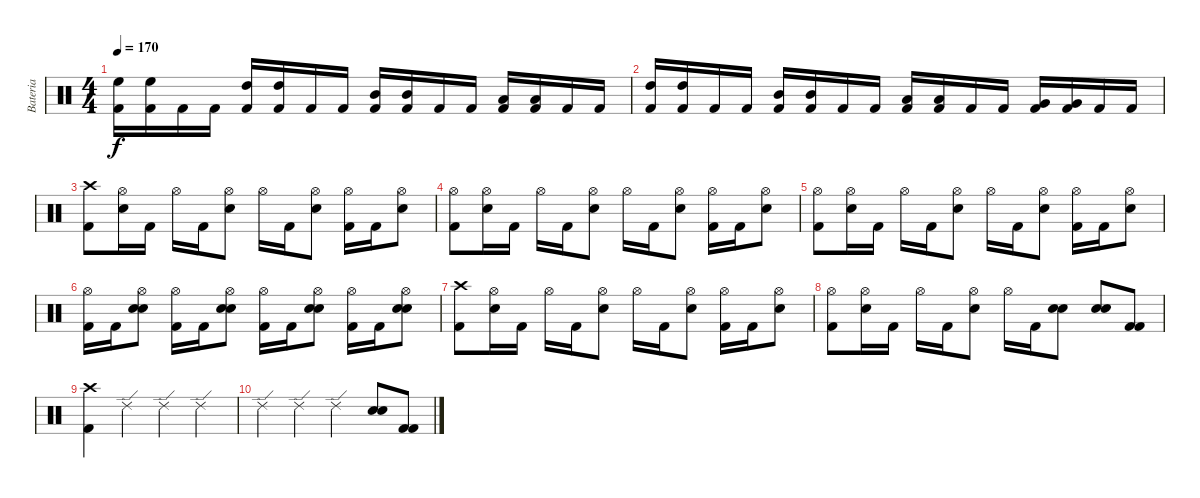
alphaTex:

\track ("Bateria" "Bateria") {instrument percussion}
\staff {score}
\articulation defaults
\ts (4 4)
\tempo 170
\clef neutral
\ks c
("High Floor Tom (hit)" "Kick (hit) 2").16{dy f} ("High Floor Tom (hit)" "Kick (hit) 2").16 "Kick (hit) 2".16 "Kick (hit) 2".16 ("High Tom (hit)" "Kick (hit) 2").16 ("High Tom (hit)" "Kick (hit) 2").16 "Kick (hit) 2".16 "Kick (hit) 2".16 ("Mid Tom (hit)" "Kick (hit) 2").16 ("Mid Tom (hit)" "Kick (hit) 2").16 "Kick (hit) 2".16 "Kick (hit) 2".16 ("Low Tom (hit)" "Kick (hit) 2").16 ("Low Tom (hit)" "Kick (hit) 2").16 "Kick (hit) 2".16 "Kick (hit) 2".16 |
("High Tom (hit)" "Kick (hit) 2").16 ("High Tom (hit)" "Kick (hit) 2").16 "Kick (hit) 2".16 "Kick (hit) 2".16 ("Mid Tom (hit)" "Kick (hit) 2").16 ("Mid Tom (hit)" "Kick (hit) 2").16 "Kick (hit) 2".16 "Kick (hit) 2".16 ("Low Tom (hit)" "Kick (hit) 2").16 ("Low Tom (hit)" "Kick (hit) 2").16 "Kick (hit) 2".16 "Kick (hit) 2".16 ("Very Low Tom (hit)" "Kick (hit) 2").16 ("Very Low Tom (hit)" "Kick (hit) 2").16 "Kick (hit) 2".16 "Kick (hit) 2".16 |
("Crash high (hit)" "Kick (hit) 2").8 ("Hi-Hat (open)" "Snare (hit) 2").16 "Kick (hit) 2".16 "Hi-Hat (open)".16 "Kick (hit) 2".16 ("Hi-Hat (open)" "Snare (hit) 2").8 "Hi-Hat (open)".16 "Kick (hit) 2".16 ("Hi-Hat (open)" "Snare (hit) 2").8 ("Hi-Hat (open)" "Kick (hit) 2").16 "Kick (hit) 2".16 ("Hi-Hat (open)" "Snare (hit) 2").8 |
("Hi-Hat (open)" "Kick (hit) 2").8 ("Hi-Hat (open)" "Snare (hit) 2").16 "Kick (hit) 2".16 "Hi-Hat (open)".16 "Kick (hit) 2".16 ("Hi-Hat (open)" "Snare (hit) 2").8 "Hi-Hat (open)".16 "Kick (hit) 2".16 ("Hi-Hat (open)" "Snare (hit) 2").8 ("Hi-Hat (open)" "Kick (hit) 2").16 "Kick (hit) 2".16 ("Hi-Hat (open)" "Snare (hit) 2").8 |
("Hi-Hat (open)" "Kick (hit) 2").8 ("Hi-Hat (open)" "Snare (hit) 2").16 "Kick (hit) 2".16 "Hi-Hat (open)".16 "Kick (hit) 2".16 ("Hi-Hat (open)" "Snare (hit) 2").8 "Hi-Hat (open)".16 "Kick (hit) 2".16 ("Hi-Hat (open)" "Snare (hit) 2").8 ("Hi-Hat (open)" "Kick (hit) 2").16 "Kick (hit) 2".16 ("Hi-Hat (open)" "Snare (hit) 2").8 |
("Hi-Hat (open)" "Kick (hit) 2").16 "Kick (hit) 2".16 ("Hi-Hat (open)" "Electric Snare (hit)" "Snare (hit) 2").8 ("Hi-Hat (open)" "Kick (hit) 2").16 "Kick (hit) 2".16 ("Hi-Hat (open)" "Electric Snare (hit)" "Snare (hit) 2").8 ("Hi-Hat (open)" "Kick (hit) 2").16 "Kick (hit) 2".16 ("Hi-Hat (open)" "Electric Snare (hit)" "Snare (hit) 2").8 ("Hi-Hat (open)" "Kick (hit) 2").16 "Kick (hit) 2".16 ("Hi-Hat (open)" "Electric Snare (hit)" "Snare (hit) 2").8 |
("Crash high (hit)" "Kick (hit) 2").8 ("Hi-Hat (open)" "Snare (hit) 2").16 "Kick (hit) 2".16 "Hi-Hat (open)".16 "Kick (hit) 2".16 ("Hi-Hat (open)" "Snare (hit) 2").8 "Hi-Hat (open)".16 "Kick (hit) 2".16 ("Hi-Hat (open)" "Snare (hit) 2").8 ("Hi-Hat (open)" "Kick (hit) 2").16 "Kick (hit) 2".16 ("Hi-Hat (open)" "Snare (hit) 2").8 |
("Hi-Hat (open)" "Kick (hit) 2").8 ("Hi-Hat (open)" "Snare (hit) 2").16 "Kick (hit) 2".16 "Hi-Hat (open)".16 "Kick (hit) 2".16 ("Hi-Hat (open)" "Snare (hit) 2").8 "Hi-Hat (open)".16 "Kick (hit) 2".16 ("Snare (hit) 2" "Snare (hit) 2").8 ("Snare (hit) 2" "Snare (hit) 2").8 ("Kick (hit) 2" "Kick (hit) 2").8 |
("Crash high (hit)" "Kick (hit) 2").4 "Ride (edge) 2".4 "Ride (edge) 2".4 "Ride (edge) 2".4 |
"Ride (edge) 2".4 "Ride (edge) 2".4 "Ride (edge) 2".4 ("Snare (hit) 2" "Snare (hit) 2").8 ("Kick (hit) 2" "Kick (hit) 2").8
